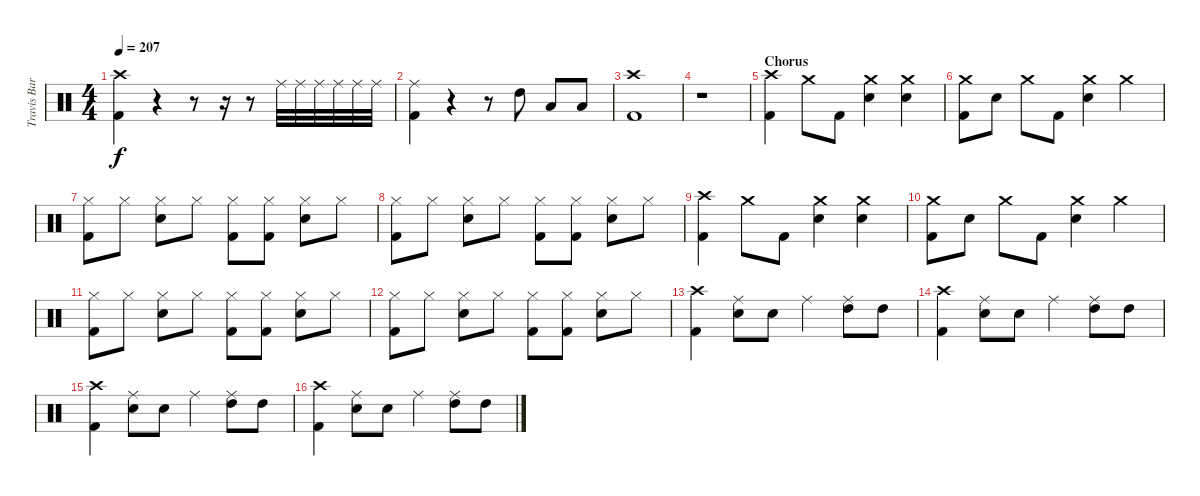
\track ("Travis Barker" "Travis Bar") {instrument percussion}
\staff {score}
\articulation defaults
\ts (4 4)
\tempo 207
\clef neutral
\ks c
("Crash high (hit)" "Kick (hit) 2").4{dy f} r.4 r.8 r.16 r.8 "Ride (middle)".32 "Ride (middle)".32 "Ride (middle)".32 "Ride (middle)".32 "Ride (middle)".32 "Ride (middle)".32 |
("Ride (middle)" "Kick (hit) 2").4 r.4 r.8 "High Tom (hit)".8 "Low Tom (hit)".8 "Low Tom (hit)".8 |
("Crash high (hit)" "Kick (hit) 2").1 |
r.1 |
\section ("" "Chorus")
("Crash high (hit)" "Kick (hit) 2").4 "Crash medium (hit)".8 "Kick (hit) 2".8 ("Crash medium (hit)" "Electric Snare (hit)").4 ("Crash medium (hit)" "Electric Snare (hit)").4 |
("Crash medium (hit)" "Kick (hit) 2").8 "Electric Snare (hit)".8 "Crash medium (hit)".8 "Kick (hit) 2".8 ("Crash medium (hit)" "Electric Snare (hit)").4 "Crash medium (hit)".4 |
("Hi-Hat (closed)" "Kick (hit) 2").8 "Hi-Hat (closed)".8 ("Hi-Hat (closed)" "Electric Snare (hit)").8 "Hi-Hat (closed)".8 ("Hi-Hat (closed)" "Kick (hit) 2").8 ("Hi-Hat (closed)" "Kick (hit) 2").8 ("Hi-Hat (closed)" "Electric Snare (hit)").8 "Hi-Hat (closed)".8 |
("Hi-Hat (closed)" "Kick (hit) 2").8 "Hi-Hat (closed)".8 ("Hi-Hat (closed)" "Electric Snare (hit)").8 "Hi-Hat (closed)".8 ("Hi-Hat (closed)" "Kick (hit) 2").8 ("Hi-Hat (closed)" "Kick (hit) 2").8 ("Hi-Hat (closed)" "Electric Snare (hit)").8 "Hi-Hat (closed)".8 |
("Crash high (hit)" "Kick (hit) 2").4 "Crash medium (hit)".8 "Kick (hit) 2".8 ("Crash medium (hit)" "Electric Snare (hit)").4 ("Crash medium (hit)" "Electric Snare (hit)").4 |
("Crash medium (hit)" "Kick (hit) 2").8 "Electric Snare (hit)".8 "Crash medium (hit)".8 "Kick (hit) 2".8 ("Crash medium (hit)" "Electric Snare (hit)").4 "Crash medium (hit)".4 |
("Hi-Hat (closed)" "Kick (hit) 2").8 "Hi-Hat (closed)".8 ("Hi-Hat (closed)" "Electric Snare (hit)").8 "Hi-Hat (closed)".8 ("Hi-Hat (closed)" "Kick (hit) 2").8 ("Hi-Hat (closed)" "Kick (hit) 2").8 ("Hi-Hat (closed)" "Electric Snare (hit)").8 "Hi-Hat (closed)".8 |
("Hi-Hat (closed)" "Kick (hit) 2").8 "Hi-Hat (closed)".8 ("Hi-Hat (closed)" "Electric Snare (hit)").8 "Hi-Hat (closed)".8 ("Hi-Hat (closed)" "Kick (hit) 2").8 ("Hi-Hat (closed)" "Kick (hit) 2").8 ("Hi-Hat (closed)" "Electric Snare (hit)").8 "Hi-Hat (closed)".8 |
("Crash high (hit)" "Kick (hit) 2").4 ("Ride (middle)" "Electric Snare (hit)").8 "Electric Snare (hit)".8 "Ride (middle)".4 ("Ride (middle)" "High Tom (hit)").8 "High Tom (hit)".8 |
("Crash high (hit)" "Kick (hit) 2").4 ("Ride (middle)" "Electric Snare (hit)").8 "Electric Snare (hit)".8 "Ride (middle)".4 ("Ride (middle)" "High Tom (hit)").8 "High Tom (hit)".8 |
("Crash high (hit)" "Kick (hit) 2").4 ("Ride (middle)" "Electric Snare (hit)").8 "Electric Snare (hit)".8 "Ride (middle)".4 ("Ride (middle)" "High Tom (hit)").8 "High Tom (hit)".8 |
("Crash high (hit)" "Kick (hit) 2").4 ("Ride (middle)" "Electric Snare (hit)").8 "Electric Snare (hit)".8 "Ride (middle)".4 ("Ride (middle)" "High Tom (hit)").8 "High Tom (hit)".8
